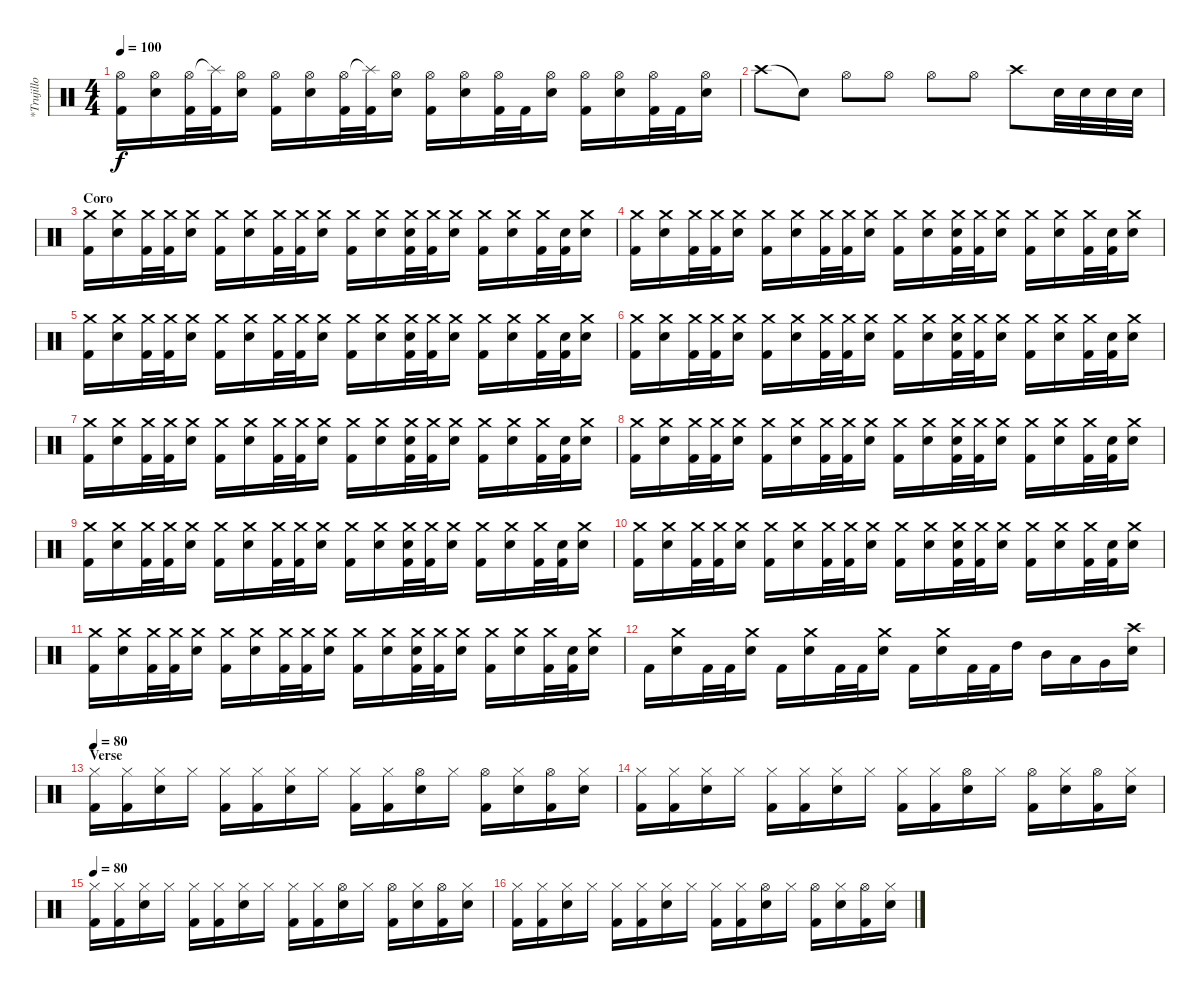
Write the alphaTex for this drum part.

\track ("*Trujillo" "*Trujillo") {instrument percussion}
\staff {score}
\articulation defaults
\ts (4 4)
\tempo 100
\clef neutral
\ks c
("Hi-Hat (open)" "Kick (hit) 2").16{dy f} ("Hi-Hat (open)" "Electric Snare (hit)").16 ("Hi-Hat (open)" "Kick (hit) 2").32 ("Splash (hit)"{t} "Kick (hit) 2").32 ("Hi-Hat (open)" "Electric Snare (hit)").16 ("Hi-Hat (open)" "Kick (hit) 2").16 ("Hi-Hat (open)" "Electric Snare (hit)").16 ("Hi-Hat (open)" "Kick (hit) 2").32 ("Splash (hit)"{t} "Kick (hit) 2").32 ("Hi-Hat (open)" "Electric Snare (hit)").16 ("Hi-Hat (open)" "Kick (hit) 2").16 ("Hi-Hat (open)" "Electric Snare (hit)").16 ("Hi-Hat (open)" "Kick (hit) 2").32 "Kick (hit) 2".32 ("Hi-Hat (open)" "Electric Snare (hit)").16 ("Kick (hit) 2" "Hi-Hat (open)").16 ("Hi-Hat (open)" "Electric Snare (hit)").16 ("Hi-Hat (open)" "Kick (hit) 2").32 "Kick (hit) 2".32 ("Hi-Hat (open)" "Electric Snare (hit)").16 |
"Crash high (hit)".8 "Snare (hit)"{t}.8 "Hi-Hat (open)".8 "Hi-Hat (open)".8 "Hi-Hat (open)".8 "Hi-Hat (open)".8 "Crash high (hit)".8 "Electric Snare (hit)".32 "Electric Snare (hit)".32 "Electric Snare (hit)".32 "Electric Snare (hit)".32 |
\section ("" "Coro")
("Crash medium (hit)"{x} "Kick (hit) 2").16 ("Crash medium (hit)" "Electric Snare (hit)").16 ("Crash medium (hit)"{x} "Kick (hit) 2").32 ("Crash medium (hit)"{x} "Kick (hit) 2").32 ("Crash medium (hit)" "Electric Snare (hit)").16 ("Crash medium (hit)"{x} "Kick (hit) 2").16 ("Crash medium (hit)" "Electric Snare (hit)").16 ("Crash medium (hit)"{x} "Kick (hit) 2").32 ("Crash medium (hit)"{x} "Kick (hit) 2").32 ("Crash medium (hit)" "Electric Snare (hit)").16 ("Crash medium (hit)"{x} "Kick (hit) 2").16 ("Crash medium (hit)" "Electric Snare (hit)").16 ("Snare (hit)"{x} "Crash medium (hit)"{x} "Kick (hit) 2").32 ("Crash medium (hit)"{x} "Kick (hit) 2").32 ("Crash medium (hit)" "Electric Snare (hit)").16 ("Crash medium (hit)"{x} "Kick (hit) 2").16 ("Crash medium (hit)" "Electric Snare (hit)").16 ("Crash medium (hit)"{x} "Kick (hit) 2").32 ("Snare (hit)"{x} "Kick (hit) 2").32 ("Crash medium (hit)" "Electric Snare (hit)").16 |
("Crash medium (hit)"{x} "Kick (hit) 2").16 ("Crash medium (hit)" "Electric Snare (hit)").16 ("Crash medium (hit)"{x} "Kick (hit) 2").32 ("Crash medium (hit)"{x} "Kick (hit) 2").32 ("Crash medium (hit)" "Electric Snare (hit)").16 ("Crash medium (hit)"{x} "Kick (hit) 2").16 ("Crash medium (hit)" "Electric Snare (hit)").16 ("Crash medium (hit)"{x} "Kick (hit) 2").32 ("Crash medium (hit)"{x} "Kick (hit) 2").32 ("Crash medium (hit)" "Electric Snare (hit)").16 ("Crash medium (hit)"{x} "Kick (hit) 2").16 ("Crash medium (hit)" "Electric Snare (hit)").16 ("Snare (hit)"{x} "Crash medium (hit)"{x} "Kick (hit) 2").32 ("Crash medium (hit)"{x} "Kick (hit) 2").32 ("Crash medium (hit)" "Electric Snare (hit)").16 ("Crash medium (hit)"{x} "Kick (hit) 2").16 ("Crash medium (hit)" "Electric Snare (hit)").16 ("Crash medium (hit)"{x} "Kick (hit) 2").32 ("Snare (hit)"{x} "Kick (hit) 2").32 ("Crash medium (hit)" "Electric Snare (hit)").16 |
("Crash medium (hit)"{x} "Kick (hit) 2").16 ("Crash medium (hit)" "Electric Snare (hit)").16 ("Crash medium (hit)"{x} "Kick (hit) 2").32 ("Crash medium (hit)"{x} "Kick (hit) 2").32 ("Crash medium (hit)" "Electric Snare (hit)").16 ("Crash medium (hit)"{x} "Kick (hit) 2").16 ("Crash medium (hit)" "Electric Snare (hit)").16 ("Crash medium (hit)"{x} "Kick (hit) 2").32 ("Crash medium (hit)"{x} "Kick (hit) 2").32 ("Crash medium (hit)" "Electric Snare (hit)").16 ("Crash medium (hit)"{x} "Kick (hit) 2").16 ("Crash medium (hit)" "Electric Snare (hit)").16 ("Snare (hit)"{x} "Crash medium (hit)"{x} "Kick (hit) 2").32 ("Crash medium (hit)"{x} "Kick (hit) 2").32 ("Crash medium (hit)" "Electric Snare (hit)").16 ("Crash medium (hit)"{x} "Kick (hit) 2").16 ("Crash medium (hit)" "Electric Snare (hit)").16 ("Crash medium (hit)"{x} "Kick (hit) 2").32 ("Snare (hit)"{x} "Kick (hit) 2").32 ("Crash medium (hit)" "Electric Snare (hit)").16 |
("Crash medium (hit)"{x} "Kick (hit) 2").16 ("Crash medium (hit)" "Electric Snare (hit)").16 ("Crash medium (hit)"{x} "Kick (hit) 2").32 ("Crash medium (hit)"{x} "Kick (hit) 2").32 ("Crash medium (hit)" "Electric Snare (hit)").16 ("Crash medium (hit)"{x} "Kick (hit) 2").16 ("Crash medium (hit)" "Electric Snare (hit)").16 ("Crash medium (hit)"{x} "Kick (hit) 2").32 ("Crash medium (hit)"{x} "Kick (hit) 2").32 ("Crash medium (hit)" "Electric Snare (hit)").16 ("Crash medium (hit)"{x} "Kick (hit) 2").16 ("Crash medium (hit)" "Electric Snare (hit)").16 ("Snare (hit)"{x} "Crash medium (hit)"{x} "Kick (hit) 2").32 ("Crash medium (hit)"{x} "Kick (hit) 2").32 ("Crash medium (hit)" "Electric Snare (hit)").16 ("Crash medium (hit)"{x} "Kick (hit) 2").16 ("Crash medium (hit)" "Electric Snare (hit)").16 ("Crash medium (hit)"{x} "Kick (hit) 2").32 ("Snare (hit)"{x} "Kick (hit) 2").32 ("Crash medium (hit)" "Electric Snare (hit)").16 |
("Crash medium (hit)"{x} "Kick (hit) 2").16 ("Crash medium (hit)" "Electric Snare (hit)").16 ("Crash medium (hit)"{x} "Kick (hit) 2").32 ("Crash medium (hit)"{x} "Kick (hit) 2").32 ("Crash medium (hit)" "Electric Snare (hit)").16 ("Crash medium (hit)"{x} "Kick (hit) 2").16 ("Crash medium (hit)" "Electric Snare (hit)").16 ("Crash medium (hit)"{x} "Kick (hit) 2").32 ("Crash medium (hit)"{x} "Kick (hit) 2").32 ("Crash medium (hit)" "Electric Snare (hit)").16 ("Crash medium (hit)"{x} "Kick (hit) 2").16 ("Crash medium (hit)" "Electric Snare (hit)").16 ("Snare (hit)"{x} "Crash medium (hit)"{x} "Kick (hit) 2").32 ("Crash medium (hit)"{x} "Kick (hit) 2").32 ("Crash medium (hit)" "Electric Snare (hit)").16 ("Crash medium (hit)"{x} "Kick (hit) 2").16 ("Crash medium (hit)" "Electric Snare (hit)").16 ("Crash medium (hit)"{x} "Kick (hit) 2").32 ("Snare (hit)"{x} "Kick (hit) 2").32 ("Crash medium (hit)" "Electric Snare (hit)").16 |
("Crash medium (hit)"{x} "Kick (hit) 2").16 ("Crash medium (hit)" "Electric Snare (hit)").16 ("Crash medium (hit)"{x} "Kick (hit) 2").32 ("Crash medium (hit)"{x} "Kick (hit) 2").32 ("Crash medium (hit)" "Electric Snare (hit)").16 ("Crash medium (hit)"{x} "Kick (hit) 2").16 ("Crash medium (hit)" "Electric Snare (hit)").16 ("Crash medium (hit)"{x} "Kick (hit) 2").32 ("Crash medium (hit)"{x} "Kick (hit) 2").32 ("Crash medium (hit)" "Electric Snare (hit)").16 ("Crash medium (hit)"{x} "Kick (hit) 2").16 ("Crash medium (hit)" "Electric Snare (hit)").16 ("Snare (hit)"{x} "Crash medium (hit)"{x} "Kick (hit) 2").32 ("Crash medium (hit)"{x} "Kick (hit) 2").32 ("Crash medium (hit)" "Electric Snare (hit)").16 ("Crash medium (hit)"{x} "Kick (hit) 2").16 ("Crash medium (hit)" "Electric Snare (hit)").16 ("Crash medium (hit)"{x} "Kick (hit) 2").32 ("Snare (hit)"{x} "Kick (hit) 2").32 ("Crash medium (hit)" "Electric Snare (hit)").16 |
("Crash medium (hit)"{x} "Kick (hit) 2").16 ("Crash medium (hit)" "Electric Snare (hit)").16 ("Crash medium (hit)"{x} "Kick (hit) 2").32 ("Crash medium (hit)"{x} "Kick (hit) 2").32 ("Crash medium (hit)" "Electric Snare (hit)").16 ("Crash medium (hit)"{x} "Kick (hit) 2").16 ("Crash medium (hit)" "Electric Snare (hit)").16 ("Crash medium (hit)"{x} "Kick (hit) 2").32 ("Crash medium (hit)"{x} "Kick (hit) 2").32 ("Crash medium (hit)" "Electric Snare (hit)").16 ("Crash medium (hit)"{x} "Kick (hit) 2").16 ("Crash medium (hit)" "Electric Snare (hit)").16 ("Snare (hit)"{x} "Crash medium (hit)"{x} "Kick (hit) 2").32 ("Crash medium (hit)"{x} "Kick (hit) 2").32 ("Crash medium (hit)" "Electric Snare (hit)").16 ("Crash medium (hit)"{x} "Kick (hit) 2").16 ("Crash medium (hit)" "Electric Snare (hit)").16 ("Crash medium (hit)"{x} "Kick (hit) 2").32 ("Snare (hit)"{x} "Kick (hit) 2").32 ("Crash medium (hit)" "Electric Snare (hit)").16 |
("Crash medium (hit)"{x} "Kick (hit) 2").16 ("Crash medium (hit)" "Electric Snare (hit)").16 ("Crash medium (hit)"{x} "Kick (hit) 2").32 ("Crash medium (hit)"{x} "Kick (hit) 2").32 ("Crash medium (hit)" "Electric Snare (hit)").16 ("Crash medium (hit)"{x} "Kick (hit) 2").16 ("Crash medium (hit)" "Electric Snare (hit)").16 ("Crash medium (hit)"{x} "Kick (hit) 2").32 ("Crash medium (hit)"{x} "Kick (hit) 2").32 ("Crash medium (hit)" "Electric Snare (hit)").16 ("Crash medium (hit)"{x} "Kick (hit) 2").16 ("Crash medium (hit)" "Electric Snare (hit)").16 ("Snare (hit)"{x} "Crash medium (hit)"{x} "Kick (hit) 2").32 ("Crash medium (hit)"{x} "Kick (hit) 2").32 ("Crash medium (hit)" "Electric Snare (hit)").16 ("Crash medium (hit)"{x} "Kick (hit) 2").16 ("Crash medium (hit)" "Electric Snare (hit)").16 ("Crash medium (hit)"{x} "Kick (hit) 2").32 ("Snare (hit)"{x} "Kick (hit) 2").32 ("Crash medium (hit)" "Electric Snare (hit)").16 |
("Crash medium (hit)"{x} "Kick (hit) 2").16 ("Crash medium (hit)" "Electric Snare (hit)").16 ("Crash medium (hit)"{x} "Kick (hit) 2").32 ("Crash medium (hit)"{x} "Kick (hit) 2").32 ("Crash medium (hit)" "Electric Snare (hit)").16 ("Crash medium (hit)"{x} "Kick (hit) 2").16 ("Crash medium (hit)" "Electric Snare (hit)").16 ("Crash medium (hit)"{x} "Kick (hit) 2").32 ("Crash medium (hit)"{x} "Kick (hit) 2").32 ("Crash medium (hit)" "Electric Snare (hit)").16 ("Crash medium (hit)"{x} "Kick (hit) 2").16 ("Crash medium (hit)" "Electric Snare (hit)").16 ("Snare (hit)"{x} "Crash medium (hit)"{x} "Kick (hit) 2").32 ("Crash medium (hit)"{x} "Kick (hit) 2").32 ("Crash medium (hit)" "Electric Snare (hit)").16 ("Crash medium (hit)"{x} "Kick (hit) 2").16 ("Crash medium (hit)" "Electric Snare (hit)").16 ("Crash medium (hit)"{x} "Kick (hit) 2").32 ("Snare (hit)"{x} "Kick (hit) 2").32 ("Crash medium (hit)" "Electric Snare (hit)").16 |
"Kick (hit) 2".16 ("Crash medium (hit)" "Electric Snare (hit)").16 "Kick (hit) 2".32 "Kick (hit) 2".32 ("Crash medium (hit)" "Electric Snare (hit)").16 "Kick (hit) 2".16 ("Crash medium (hit)" "Electric Snare (hit)").16 "Kick (hit) 2".32 "Kick (hit) 2".32 ("Crash medium (hit)" "Electric Snare (hit)").16 "Kick (hit) 2".16 ("Crash medium (hit)" "Electric Snare (hit)").16 "Kick (hit) 2".32 "Kick (hit) 2".32 "High Tom (hit)".16 "Mid Tom (hit)".16 "Low Tom (hit)".16 "Very Low Tom (hit)".16 ("Crash high (hit)" "Electric Snare (hit)").16 |
\section ("" "Verse")
\tempo 80
("Hi-Hat (closed)" "Kick (hit) 2").16 ("Hi-Hat (closed)" "Kick (hit) 2").16 ("Hi-Hat (closed)" "Electric Snare (hit)").16 "Hi-Hat (closed)".16 ("Hi-Hat (closed)" "Kick (hit) 2").16 ("Hi-Hat (closed)" "Kick (hit) 2").16 ("Hi-Hat (closed)" "Electric Snare (hit)").16 "Hi-Hat (closed)".16 ("Hi-Hat (closed)" "Kick (hit) 2").16 ("Hi-Hat (closed)" "Kick (hit) 2").16 ("Hi-Hat (open)" "Electric Snare (hit)").16 "Hi-Hat (closed)".16 ("Hi-Hat (open)" "Kick (hit) 2").16 ("Hi-Hat (closed)" "Electric Snare (hit)").16 ("Hi-Hat (open)" "Kick (hit) 2").16 ("Hi-Hat (closed)" "Electric Snare (hit)").16 |
("Hi-Hat (closed)" "Kick (hit) 2").16 ("Hi-Hat (closed)" "Kick (hit) 2").16 ("Hi-Hat (closed)" "Electric Snare (hit)").16 "Hi-Hat (closed)".16 ("Hi-Hat (closed)" "Kick (hit) 2").16 ("Hi-Hat (closed)" "Kick (hit) 2").16 ("Hi-Hat (closed)" "Electric Snare (hit)").16 "Hi-Hat (closed)".16 ("Hi-Hat (closed)" "Kick (hit) 2").16 ("Hi-Hat (closed)" "Kick (hit) 2").16 ("Hi-Hat (open)" "Electric Snare (hit)").16 "Hi-Hat (closed)".16 ("Hi-Hat (open)" "Kick (hit) 2").16 ("Hi-Hat (closed)" "Electric Snare (hit)").16 ("Hi-Hat (open)" "Kick (hit) 2").16 ("Hi-Hat (closed)" "Electric Snare (hit)").16 |
\tempo 80
("Hi-Hat (closed)" "Kick (hit) 2").16 ("Hi-Hat (closed)" "Kick (hit) 2").16 ("Hi-Hat (closed)" "Electric Snare (hit)").16 "Hi-Hat (closed)".16 ("Hi-Hat (closed)" "Kick (hit) 2").16 ("Hi-Hat (closed)" "Kick (hit) 2").16 ("Hi-Hat (closed)" "Electric Snare (hit)").16 "Hi-Hat (closed)".16 ("Hi-Hat (closed)" "Kick (hit) 2").16 ("Hi-Hat (closed)" "Kick (hit) 2").16 ("Hi-Hat (open)" "Electric Snare (hit)").16 "Hi-Hat (closed)".16 ("Hi-Hat (open)" "Kick (hit) 2").16 ("Hi-Hat (closed)" "Electric Snare (hit)").16 ("Hi-Hat (open)" "Kick (hit) 2").16 ("Hi-Hat (closed)" "Electric Snare (hit)").16 |
("Hi-Hat (closed)" "Kick (hit) 2").16 ("Hi-Hat (closed)" "Kick (hit) 2").16 ("Hi-Hat (closed)" "Electric Snare (hit)").16 "Hi-Hat (closed)".16 ("Hi-Hat (closed)" "Kick (hit) 2").16 ("Hi-Hat (closed)" "Kick (hit) 2").16 ("Hi-Hat (closed)" "Electric Snare (hit)").16 "Hi-Hat (closed)".16 ("Hi-Hat (closed)" "Kick (hit) 2").16 ("Hi-Hat (closed)" "Kick (hit) 2").16 ("Hi-Hat (open)" "Electric Snare (hit)").16 "Hi-Hat (closed)".16 ("Hi-Hat (open)" "Kick (hit) 2").16 ("Hi-Hat (closed)" "Electric Snare (hit)").16 ("Hi-Hat (open)" "Kick (hit) 2").16 ("Hi-Hat (closed)" "Electric Snare (hit)").16
